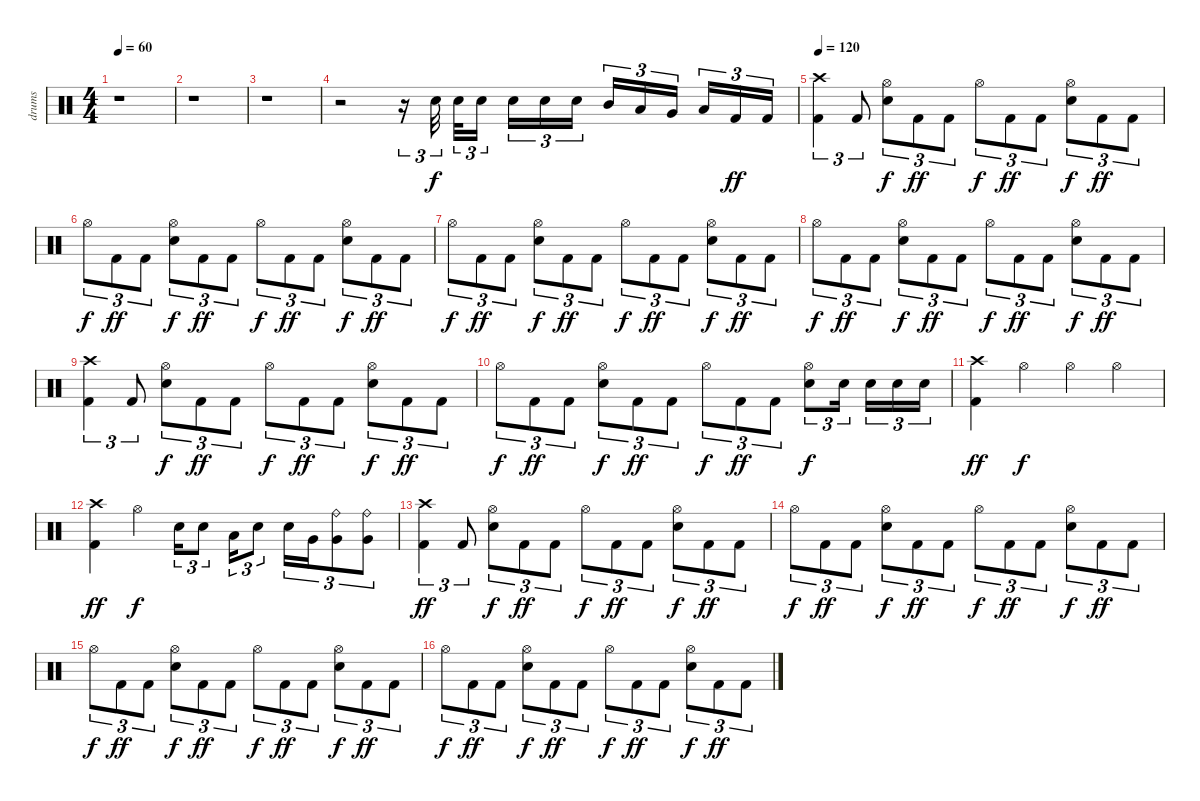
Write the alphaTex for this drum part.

\track ("drums" "drums") {instrument percussion}
\staff {score}
\articulation defaults
\ts (4 4)
\tempo 60
\clef neutral
\ks c
r.1{dy f} |
r.1 |
r.1 |
r.2 r.16{tu (3 2)} "Electric Snare (hit)".32{tu (3 2)} "Electric Snare (hit)".32{tu (3 2)} "Electric Snare (hit)".16{tu (3 2)} "Electric Snare (hit)".16{tu (3 2)} "Electric Snare (hit)".16{tu (3 2)} "Electric Snare (hit)".16{tu (3 2)} "Mid Tom (hit)".16{tu (3 2)} "Low Tom (hit)".16{tu (3 2)} "Very Low Tom (hit)".16{tu (3 2)} "Low Floor Tom (hit)".16{tu (3 2)} "Kick (hit) 2".16{tu (3 2) dy ff} "Kick (hit) 2".16{tu (3 2)} |
\tempo 120
("Crash high (hit)" "Kick (hit) 2").4{tu (3 2)} "Kick (hit) 2".8{tu (3 2)} ("Hi-Hat (open)" "Electric Snare (hit)").8{tu (3 2) dy f} "Kick (hit) 2".8{tu (3 2) dy ff} "Kick (hit) 2".8{tu (3 2)} "Hi-Hat (open)".8{tu (3 2) dy f} "Kick (hit) 2".8{tu (3 2) dy ff} "Kick (hit) 2".8{tu (3 2)} ("Hi-Hat (open)" "Electric Snare (hit)").8{tu (3 2) dy f} "Kick (hit) 2".8{tu (3 2) dy ff} "Kick (hit) 2".8{tu (3 2)} |
"Hi-Hat (open)".8{tu (3 2) dy f} "Kick (hit) 2".8{tu (3 2) dy ff} "Kick (hit) 2".8{tu (3 2)} ("Hi-Hat (open)" "Electric Snare (hit)").8{tu (3 2) dy f} "Kick (hit) 2".8{tu (3 2) dy ff} "Kick (hit) 2".8{tu (3 2)} "Hi-Hat (open)".8{tu (3 2) dy f} "Kick (hit) 2".8{tu (3 2) dy ff} "Kick (hit) 2".8{tu (3 2)} ("Hi-Hat (open)" "Electric Snare (hit)").8{tu (3 2) dy f} "Kick (hit) 2".8{tu (3 2) dy ff} "Kick (hit) 2".8{tu (3 2)} |
"Hi-Hat (open)".8{tu (3 2) dy f} "Kick (hit) 2".8{tu (3 2) dy ff} "Kick (hit) 2".8{tu (3 2)} ("Hi-Hat (open)" "Electric Snare (hit)").8{tu (3 2) dy f} "Kick (hit) 2".8{tu (3 2) dy ff} "Kick (hit) 2".8{tu (3 2)} "Hi-Hat (open)".8{tu (3 2) dy f} "Kick (hit) 2".8{tu (3 2) dy ff} "Kick (hit) 2".8{tu (3 2)} ("Hi-Hat (open)" "Electric Snare (hit)").8{tu (3 2) dy f} "Kick (hit) 2".8{tu (3 2) dy ff} "Kick (hit) 2".8{tu (3 2)} |
"Hi-Hat (open)".8{tu (3 2) dy f} "Kick (hit) 2".8{tu (3 2) dy ff} "Kick (hit) 2".8{tu (3 2)} ("Hi-Hat (open)" "Electric Snare (hit)").8{tu (3 2) dy f} "Kick (hit) 2".8{tu (3 2) dy ff} "Kick (hit) 2".8{tu (3 2)} "Hi-Hat (open)".8{tu (3 2) dy f} "Kick (hit) 2".8{tu (3 2) dy ff} "Kick (hit) 2".8{tu (3 2)} ("Hi-Hat (open)" "Electric Snare (hit)").8{tu (3 2) dy f} "Kick (hit) 2".8{tu (3 2) dy ff} "Kick (hit) 2".8{tu (3 2)} |
("Crash high (hit)" "Kick (hit) 2").4{tu (3 2)} "Kick (hit) 2".8{tu (3 2)} ("Hi-Hat (open)" "Electric Snare (hit)").8{tu (3 2) dy f} "Kick (hit) 2".8{tu (3 2) dy ff} "Kick (hit) 2".8{tu (3 2)} "Hi-Hat (open)".8{tu (3 2) dy f} "Kick (hit) 2".8{tu (3 2) dy ff} "Kick (hit) 2".8{tu (3 2)} ("Hi-Hat (open)" "Electric Snare (hit)").8{tu (3 2) dy f} "Kick (hit) 2".8{tu (3 2) dy ff} "Kick (hit) 2".8{tu (3 2)} |
"Hi-Hat (open)".8{tu (3 2) dy f} "Kick (hit) 2".8{tu (3 2) dy ff} "Kick (hit) 2".8{tu (3 2)} ("Hi-Hat (open)" "Electric Snare (hit)").8{tu (3 2) dy f} "Kick (hit) 2".8{tu (3 2) dy ff} "Kick (hit) 2".8{tu (3 2)} "Hi-Hat (open)".8{tu (3 2) dy f} "Kick (hit) 2".8{tu (3 2) dy ff} "Kick (hit) 2".8{tu (3 2)} ("Hi-Hat (open)" "Electric Snare (hit)").8{tu (3 2) dy f} "Electric Snare (hit)".16{tu (3 2)} "Electric Snare (hit)".16{tu (3 2)} "Electric Snare (hit)".16{tu (3 2)} "Electric Snare (hit)".16{tu (3 2)} |
("Crash high (hit)" "Kick (hit) 2").4{dy ff} "Hi-Hat (open)".4{dy f} "Hi-Hat (open)".4 "Hi-Hat (open)".4 |
("Crash high (hit)" "Kick (hit) 2").4{dy ff} "Hi-Hat (open)".4{dy f} "Electric Snare (hit)".16{tu (3 2)} "Electric Snare (hit)".8{tu (3 2)} "Low Tom (hit)".16{tu (3 2)} "Electric Snare (hit)".8{tu (3 2)} "Electric Snare (hit)".16{tu (3 2)} "Very Low Tom (hit)".16{tu (3 2)} ("Ride (bell)" "Very Low Tom (hit)").8{tu (3 2)} ("Ride (bell)" "Very Low Tom (hit)").8{tu (3 2)} |
("Crash high (hit)" "Kick (hit) 2").4{tu (3 2) dy ff} "Kick (hit) 2".8{tu (3 2)} ("Hi-Hat (open)" "Electric Snare (hit)").8{tu (3 2) dy f} "Kick (hit) 2".8{tu (3 2) dy ff} "Kick (hit) 2".8{tu (3 2)} "Hi-Hat (open)".8{tu (3 2) dy f} "Kick (hit) 2".8{tu (3 2) dy ff} "Kick (hit) 2".8{tu (3 2)} ("Hi-Hat (open)" "Electric Snare (hit)").8{tu (3 2) dy f} "Kick (hit) 2".8{tu (3 2) dy ff} "Kick (hit) 2".8{tu (3 2)} |
"Hi-Hat (open)".8{tu (3 2) dy f} "Kick (hit) 2".8{tu (3 2) dy ff} "Kick (hit) 2".8{tu (3 2)} ("Hi-Hat (open)" "Electric Snare (hit)").8{tu (3 2) dy f} "Kick (hit) 2".8{tu (3 2) dy ff} "Kick (hit) 2".8{tu (3 2)} "Hi-Hat (open)".8{tu (3 2) dy f} "Kick (hit) 2".8{tu (3 2) dy ff} "Kick (hit) 2".8{tu (3 2)} ("Hi-Hat (open)" "Electric Snare (hit)").8{tu (3 2) dy f} "Kick (hit) 2".8{tu (3 2) dy ff} "Kick (hit) 2".8{tu (3 2)} |
"Hi-Hat (open)".8{tu (3 2) dy f} "Kick (hit) 2".8{tu (3 2) dy ff} "Kick (hit) 2".8{tu (3 2)} ("Hi-Hat (open)" "Electric Snare (hit)").8{tu (3 2) dy f} "Kick (hit) 2".8{tu (3 2) dy ff} "Kick (hit) 2".8{tu (3 2)} "Hi-Hat (open)".8{tu (3 2) dy f} "Kick (hit) 2".8{tu (3 2) dy ff} "Kick (hit) 2".8{tu (3 2)} ("Hi-Hat (open)" "Electric Snare (hit)").8{tu (3 2) dy f} "Kick (hit) 2".8{tu (3 2) dy ff} "Kick (hit) 2".8{tu (3 2)} |
"Hi-Hat (open)".8{tu (3 2) dy f} "Kick (hit) 2".8{tu (3 2) dy ff} "Kick (hit) 2".8{tu (3 2)} ("Hi-Hat (open)" "Electric Snare (hit)").8{tu (3 2) dy f} "Kick (hit) 2".8{tu (3 2) dy ff} "Kick (hit) 2".8{tu (3 2)} "Hi-Hat (open)".8{tu (3 2) dy f} "Kick (hit) 2".8{tu (3 2) dy ff} "Kick (hit) 2".8{tu (3 2)} ("Hi-Hat (open)" "Electric Snare (hit)").8{tu (3 2) dy f} "Kick (hit) 2".8{tu (3 2) dy ff} "Kick (hit) 2".8{tu (3 2)}
